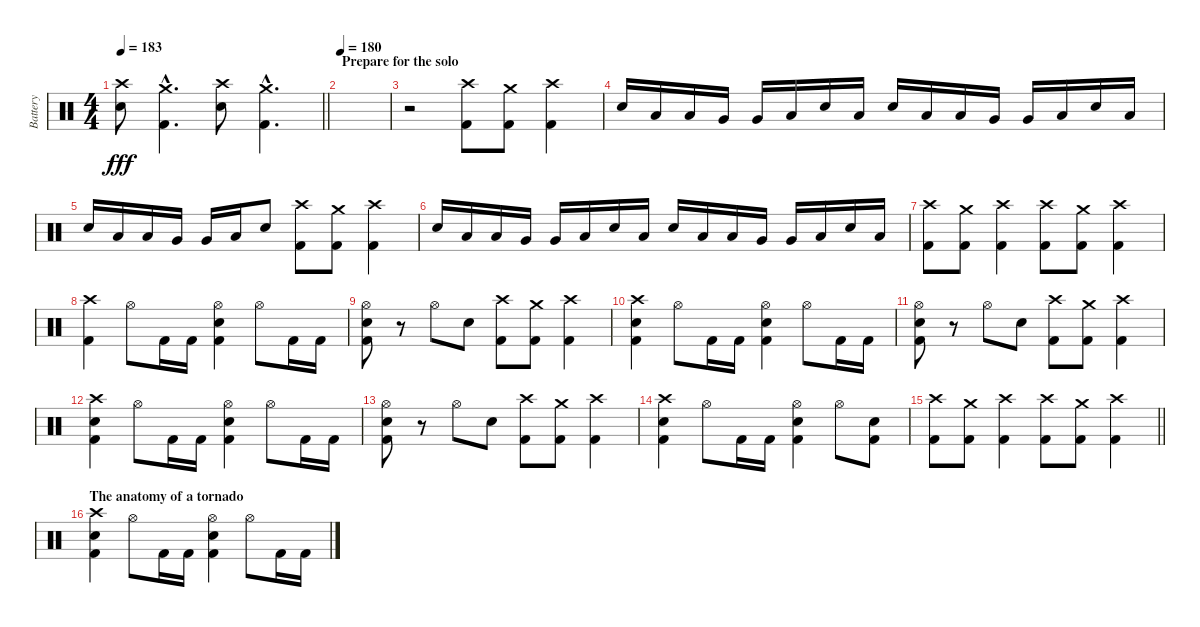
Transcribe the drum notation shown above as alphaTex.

\track ("Battery" "Battery") {instrument percussion}
\staff {score}
\articulation defaults
\ts (4 4)
\tempo 183
\clef neutral
\barLineRight lightlight
\ks c
("Crash high (hit)" "Electric Snare (hit)").8{dy fff} ("Crash medium (hit)"{hac} "Kick (hit) 2"{hac}).4{d} ("Crash high (hit)" "Electric Snare (hit)").8 ("Crash medium (hit)"{hac} "Kick (hit) 2"{hac}).4{d} |
\section ("" "Prepare for the solo")
\tempo 180
|
r.2 ("Crash high (hit)" "Kick (hit) 2").8 ("Crash medium (hit)" "Kick (hit) 2").8 ("Crash high (hit)" "Kick (hit) 2").4 |
"Electric Snare (hit)".16 "Low Tom (hit)".16 "Low Tom (hit)".16 "Very Low Tom (hit)".16 "Very Low Tom (hit)".16 "Low Tom (hit)".16 "Electric Snare (hit)".16 "Low Tom (hit)".16 "Electric Snare (hit)".16 "Low Tom (hit)".16 "Low Tom (hit)".16 "Very Low Tom (hit)".16 "Very Low Tom (hit)".16 "Low Tom (hit)".16 "Electric Snare (hit)".16 "Low Tom (hit)".16 |
"Electric Snare (hit)".16 "Low Tom (hit)".16 "Low Tom (hit)".16 "Very Low Tom (hit)".16 "Very Low Tom (hit)".16 "Low Tom (hit)".16 "Electric Snare (hit)".8 ("Crash high (hit)" "Kick (hit) 2").8 ("Crash medium (hit)" "Kick (hit) 2").8 ("Crash high (hit)" "Kick (hit) 2").4 |
"Electric Snare (hit)".16 "Low Tom (hit)".16 "Low Tom (hit)".16 "Very Low Tom (hit)".16 "Very Low Tom (hit)".16 "Low Tom (hit)".16 "Electric Snare (hit)".16 "Low Tom (hit)".16 "Electric Snare (hit)".16 "Low Tom (hit)".16 "Low Tom (hit)".16 "Very Low Tom (hit)".16 "Very Low Tom (hit)".16 "Low Tom (hit)".16 "Electric Snare (hit)".16 "Low Tom (hit)".16 |
("Crash high (hit)" "Kick (hit) 2").8 ("Crash medium (hit)" "Kick (hit) 2").8 ("Crash high (hit)" "Kick (hit) 2").4 ("Crash high (hit)" "Kick (hit) 2").8 ("Crash medium (hit)" "Kick (hit) 2").8 ("Crash high (hit)" "Kick (hit) 2").4 |
("Crash high (hit)" "Kick (hit) 2").4 "Hi-Hat (open)".8 "Kick (hit) 2".16 "Kick (hit) 2".16 ("Hi-Hat (open)" "Electric Snare (hit)" "Kick (hit) 2").4 "Hi-Hat (open)".8 "Kick (hit) 2".16 "Kick (hit) 2".16 |
("Hi-Hat (open)" "Electric Snare (hit)" "Kick (hit) 2").8 r.8 "Hi-Hat (open)".8 "Electric Snare (hit)".8 ("Crash high (hit)" "Kick (hit) 2").8 ("Crash medium (hit)" "Kick (hit) 2").8 ("Crash high (hit)" "Kick (hit) 2").4 |
("Crash high (hit)" "Electric Snare (hit)" "Kick (hit) 2").4 "Hi-Hat (open)".8 "Kick (hit) 2".16 "Kick (hit) 2".16 ("Hi-Hat (open)" "Electric Snare (hit)" "Kick (hit) 2").4 "Hi-Hat (open)".8 "Kick (hit) 2".16 "Kick (hit) 2".16 |
("Hi-Hat (open)" "Electric Snare (hit)" "Kick (hit) 2").8 r.8 "Hi-Hat (open)".8 "Electric Snare (hit)".8 ("Crash high (hit)" "Kick (hit) 2").8 ("Crash medium (hit)" "Kick (hit) 2").8 ("Crash high (hit)" "Kick (hit) 2").4 |
("Crash high (hit)" "Electric Snare (hit)" "Kick (hit) 2").4 "Hi-Hat (open)".8 "Kick (hit) 2".16 "Kick (hit) 2".16 ("Hi-Hat (open)" "Electric Snare (hit)" "Kick (hit) 2").4 "Hi-Hat (open)".8 "Kick (hit) 2".16 "Kick (hit) 2".16 |
("Hi-Hat (open)" "Electric Snare (hit)" "Kick (hit) 2").8 r.8 "Hi-Hat (open)".8 "Electric Snare (hit)".8 ("Crash high (hit)" "Kick (hit) 2").8 ("Crash medium (hit)" "Kick (hit) 2").8 ("Crash high (hit)" "Kick (hit) 2").4 |
("Crash high (hit)" "Electric Snare (hit)" "Kick (hit) 2").4 "Hi-Hat (open)".8 "Kick (hit) 2".16 "Kick (hit) 2".16 ("Hi-Hat (open)" "Electric Snare (hit)" "Kick (hit) 2").4 "Hi-Hat (open)".8 ("Electric Snare (hit)" "Kick (hit) 2").8 |
\barLineRight lightlight
("Crash high (hit)" "Kick (hit) 2").8 ("Crash medium (hit)" "Kick (hit) 2").8 ("Crash high (hit)" "Kick (hit) 2").4 ("Crash high (hit)" "Kick (hit) 2").8 ("Crash medium (hit)" "Kick (hit) 2").8 ("Crash high (hit)" "Kick (hit) 2").4 |
\section ("" "The anatomy of a tornado")
("Crash high (hit)" "Electric Snare (hit)" "Kick (hit) 2").4 "Hi-Hat (open)".8 "Kick (hit) 2".16 "Kick (hit) 2".16 ("Hi-Hat (open)" "Electric Snare (hit)" "Kick (hit) 2").4 "Hi-Hat (open)".8 "Kick (hit) 2".16 "Kick (hit) 2".16
